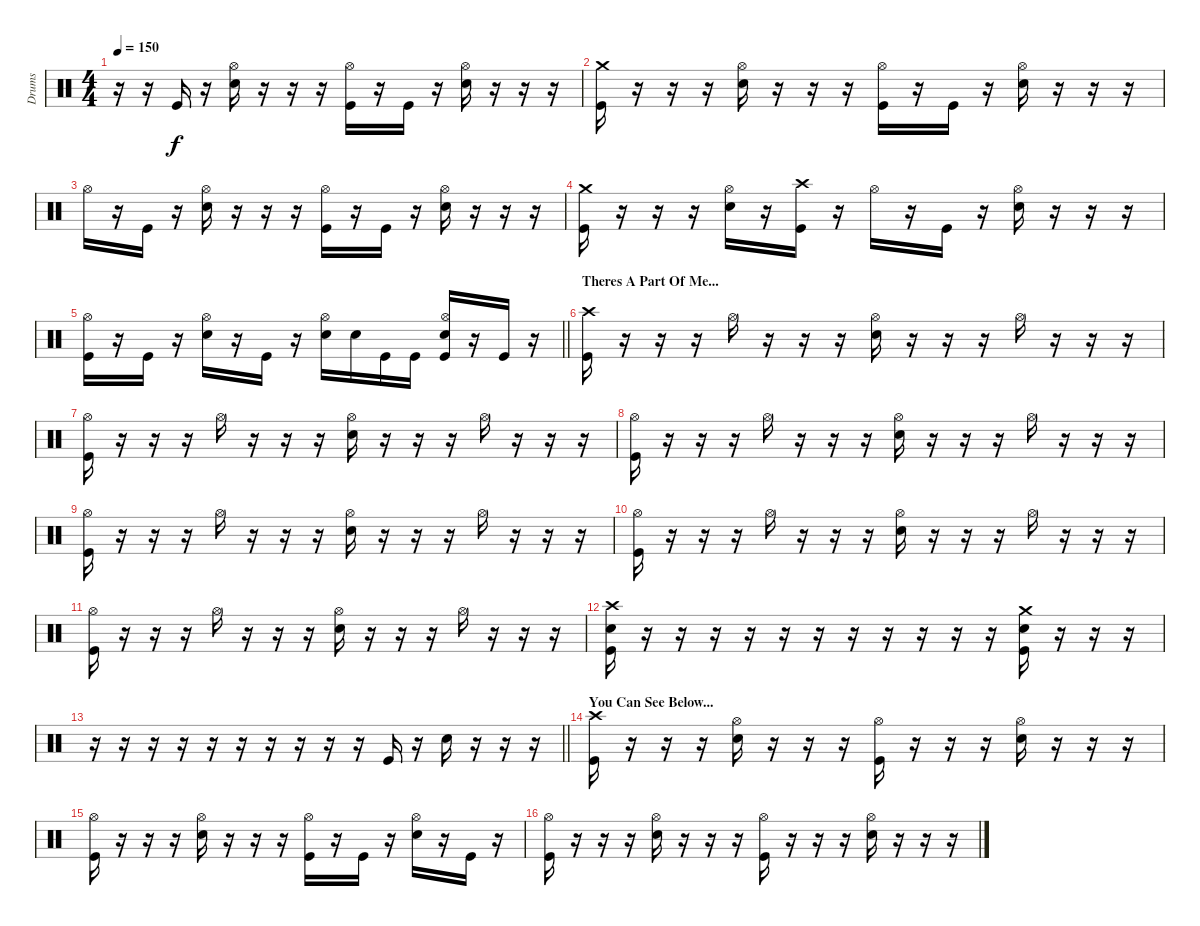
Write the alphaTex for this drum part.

\track ("Drums" "Drums") {instrument percussion}
\staff {score}
\articulation defaults
\ts (4 4)
\tempo 150
\clef neutral
\ks c
r.16{dy f} r.16 "Kick (hit)".16 r.16 ("Hi-Hat (open)" "Snare (hit) 2").16 r.16 r.16 r.16 ("Hi-Hat (open)" "Kick (hit)").16 r.16 "Kick (hit)".16 r.16 ("Hi-Hat (open)" "Snare (hit) 2").16 r.16 r.16 r.16 |
("Crash medium (hit)" "Kick (hit)").16 r.16 r.16 r.16 ("Hi-Hat (open)" "Snare (hit) 2").16 r.16 r.16 r.16 ("Hi-Hat (open)" "Kick (hit)").16 r.16 "Kick (hit)".16 r.16 ("Hi-Hat (open)" "Snare (hit) 2").16 r.16 r.16 r.16 |
"Hi-Hat (open)".16 r.16 "Kick (hit)".16 r.16 ("Hi-Hat (open)" "Snare (hit) 2").16 r.16 r.16 r.16 ("Hi-Hat (open)" "Kick (hit)").16 r.16 "Kick (hit)".16 r.16 ("Hi-Hat (open)" "Snare (hit) 2").16 r.16 r.16 r.16 |
("Crash medium (hit)" "Kick (hit)").16 r.16 r.16 r.16 ("Hi-Hat (open)" "Snare (hit) 2").16 r.16 ("Crash high (hit)" "Kick (hit)").16 r.16 "Hi-Hat (open)".16 r.16 "Kick (hit)".16 r.16 ("Hi-Hat (open)" "Snare (hit) 2").16 r.16 r.16 r.16 |
\barLineRight lightlight
("Hi-Hat (open)" "Kick (hit)").16 r.16 "Kick (hit)".16 r.16 ("Hi-Hat (open)" "Snare (hit) 2").16 r.16 "Kick (hit)".16 r.16 ("Hi-Hat (open)" "Snare (hit) 2").16 "Snare (hit) 2".16 "Kick (hit)".16 "Kick (hit)".16 ("Hi-Hat (open)" "Snare (hit) 2" "Kick (hit)").16 r.16 "Kick (hit)".16 r.16 |
\section ("" "Theres A Part Of Me...")
("Crash high (hit)" "Kick (hit)").16 r.16 r.16 r.16 "Hi-Hat (open)".16 r.16 r.16 r.16 ("Hi-Hat (open)" "Snare (hit) 2").16 r.16 r.16 r.16 "Hi-Hat (open)".16 r.16 r.16 r.16 |
("Hi-Hat (open)" "Kick (hit)").16 r.16 r.16 r.16 "Hi-Hat (open)".16 r.16 r.16 r.16 ("Hi-Hat (open)" "Snare (hit) 2").16 r.16 r.16 r.16 "Hi-Hat (open)".16 r.16 r.16 r.16 |
("Hi-Hat (open)" "Kick (hit)").16 r.16 r.16 r.16 "Hi-Hat (open)".16 r.16 r.16 r.16 ("Hi-Hat (open)" "Snare (hit) 2").16 r.16 r.16 r.16 "Hi-Hat (open)".16 r.16 r.16 r.16 |
("Hi-Hat (open)" "Kick (hit)").16 r.16 r.16 r.16 "Hi-Hat (open)".16 r.16 r.16 r.16 ("Hi-Hat (open)" "Snare (hit) 2").16 r.16 r.16 r.16 "Hi-Hat (open)".16 r.16 r.16 r.16 |
("Hi-Hat (open)" "Kick (hit)").16 r.16 r.16 r.16 "Hi-Hat (open)".16 r.16 r.16 r.16 ("Hi-Hat (open)" "Snare (hit) 2").16 r.16 r.16 r.16 "Hi-Hat (open)".16 r.16 r.16 r.16 |
("Hi-Hat (open)" "Kick (hit)").16 r.16 r.16 r.16 "Hi-Hat (open)".16 r.16 r.16 r.16 ("Hi-Hat (open)" "Snare (hit) 2").16 r.16 r.16 r.16 "Hi-Hat (open)".16 r.16 r.16 r.16 |
("Crash high (hit)" "Snare (hit) 2" "Kick (hit)").16 r.16 r.16 r.16 r.16 r.16 r.16 r.16 r.16 r.16 r.16 r.16 ("Crash medium (hit)" "Snare (hit) 2" "Kick (hit)").16 r.16 r.16 r.16 |
\barLineRight lightlight
r.16 r.16 r.16 r.16 r.16 r.16 r.16 r.16 r.16 r.16 "Kick (hit)".16 r.16 "Snare (hit) 2".16 r.16 r.16 r.16 |
\section ("" "You Can See Below...")
("Crash high (hit)" "Kick (hit)").16 r.16 r.16 r.16 ("Hi-Hat (open)" "Snare (hit) 2").16 r.16 r.16 r.16 ("Hi-Hat (open)" "Kick (hit)").16 r.16 r.16 r.16 ("Hi-Hat (open)" "Snare (hit) 2").16 r.16 r.16 r.16 |
("Hi-Hat (open)" "Kick (hit)").16 r.16 r.16 r.16 ("Hi-Hat (open)" "Snare (hit) 2").16 r.16 r.16 r.16 ("Hi-Hat (open)" "Kick (hit)").16 r.16 "Kick (hit)".16 r.16 ("Hi-Hat (open)" "Snare (hit) 2").16 r.16 "Kick (hit)".16 r.16 |
("Hi-Hat (open)" "Kick (hit)").16 r.16 r.16 r.16 ("Hi-Hat (open)" "Snare (hit) 2").16 r.16 r.16 r.16 ("Hi-Hat (open)" "Kick (hit)").16 r.16 r.16 r.16 ("Hi-Hat (open)" "Snare (hit) 2").16 r.16 r.16 r.16
